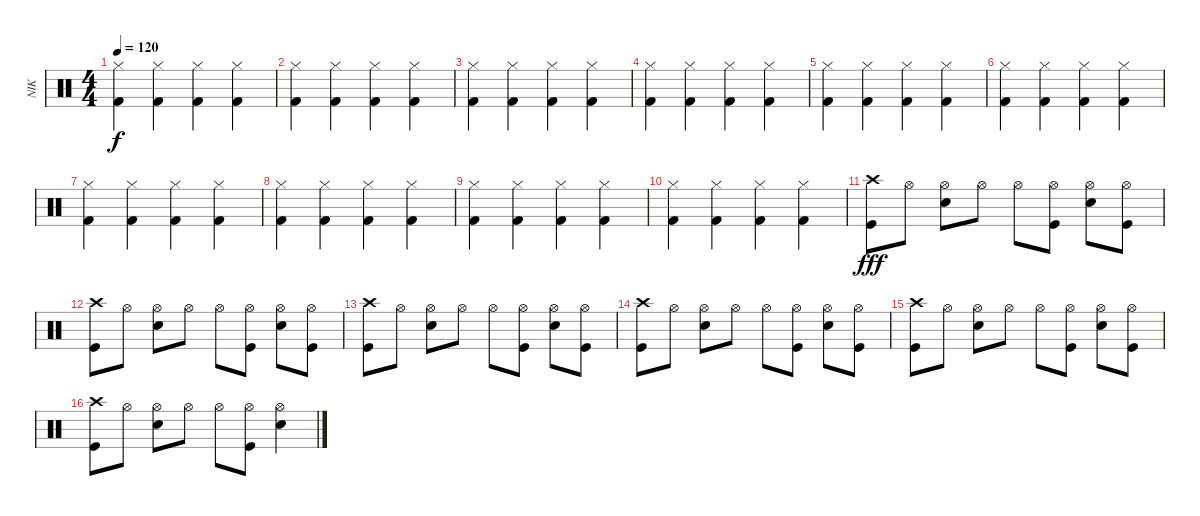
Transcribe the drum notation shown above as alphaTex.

\track ("NIK" "NIK") {instrument percussion}
\staff {score}
\articulation defaults
\ts (4 4)
\tempo 120
\clef neutral
\ks c
("Hi-Hat (closed)" "Kick (hit) 2").4{dy f} ("Hi-Hat (closed)" "Kick (hit) 2").4 ("Hi-Hat (closed)" "Kick (hit) 2").4 ("Hi-Hat (closed)" "Kick (hit) 2").4 |
("Hi-Hat (closed)" "Kick (hit) 2").4 ("Hi-Hat (closed)" "Kick (hit) 2").4 ("Hi-Hat (closed)" "Kick (hit) 2").4 ("Hi-Hat (closed)" "Kick (hit) 2").4 |
("Hi-Hat (closed)" "Kick (hit) 2").4 ("Hi-Hat (closed)" "Kick (hit) 2").4 ("Hi-Hat (closed)" "Kick (hit) 2").4 ("Hi-Hat (closed)" "Kick (hit) 2").4 |
("Hi-Hat (closed)" "Kick (hit) 2").4 ("Hi-Hat (closed)" "Kick (hit) 2").4 ("Hi-Hat (closed)" "Kick (hit) 2").4 ("Hi-Hat (closed)" "Kick (hit) 2").4 |
("Hi-Hat (closed)" "Kick (hit) 2").4 ("Hi-Hat (closed)" "Kick (hit) 2").4 ("Hi-Hat (closed)" "Kick (hit) 2").4 ("Hi-Hat (closed)" "Kick (hit) 2").4 |
("Hi-Hat (closed)" "Kick (hit) 2").4 ("Hi-Hat (closed)" "Kick (hit) 2").4 ("Hi-Hat (closed)" "Kick (hit) 2").4 ("Hi-Hat (closed)" "Kick (hit) 2").4 |
("Hi-Hat (closed)" "Kick (hit) 2").4 ("Hi-Hat (closed)" "Kick (hit) 2").4 ("Hi-Hat (closed)" "Kick (hit) 2").4 ("Hi-Hat (closed)" "Kick (hit) 2").4 |
("Hi-Hat (closed)" "Kick (hit) 2").4 ("Hi-Hat (closed)" "Kick (hit) 2").4 ("Hi-Hat (closed)" "Kick (hit) 2").4 ("Hi-Hat (closed)" "Kick (hit) 2").4 |
("Hi-Hat (closed)" "Kick (hit) 2").4 ("Hi-Hat (closed)" "Kick (hit) 2").4 ("Hi-Hat (closed)" "Kick (hit) 2").4 ("Hi-Hat (closed)" "Kick (hit) 2").4 |
("Hi-Hat (closed)" "Kick (hit) 2").4 ("Hi-Hat (closed)" "Kick (hit) 2").4 ("Hi-Hat (closed)" "Kick (hit) 2").4 ("Hi-Hat (closed)" "Kick (hit) 2").4 |
("Crash high (hit)" "Kick (hit)").8{dy fff} "Hi-Hat (open)".8 ("Hi-Hat (open)" "Snare (hit) 2").8 "Hi-Hat (open)".8 "Hi-Hat (open)".8 ("Hi-Hat (open)" "Kick (hit)").8 ("Hi-Hat (open)" "Snare (hit) 2").8 ("Hi-Hat (open)" "Kick (hit)").8 |
("Crash high (hit)" "Kick (hit)").8 "Hi-Hat (open)".8 ("Hi-Hat (open)" "Snare (hit) 2").8 "Hi-Hat (open)".8 "Hi-Hat (open)".8 ("Hi-Hat (open)" "Kick (hit)").8 ("Hi-Hat (open)" "Snare (hit) 2").8 ("Hi-Hat (open)" "Kick (hit)").8 |
("Crash high (hit)" "Kick (hit)").8 "Hi-Hat (open)".8 ("Hi-Hat (open)" "Snare (hit) 2").8 "Hi-Hat (open)".8 "Hi-Hat (open)".8 ("Hi-Hat (open)" "Kick (hit)").8 ("Hi-Hat (open)" "Snare (hit) 2").8 ("Hi-Hat (open)" "Kick (hit)").8 |
("Crash high (hit)" "Kick (hit)").8 "Hi-Hat (open)".8 ("Hi-Hat (open)" "Snare (hit) 2").8 "Hi-Hat (open)".8 "Hi-Hat (open)".8 ("Hi-Hat (open)" "Kick (hit)").8 ("Hi-Hat (open)" "Snare (hit) 2").8 ("Hi-Hat (open)" "Kick (hit)").8 |
("Crash high (hit)" "Kick (hit)").8 "Hi-Hat (open)".8 ("Hi-Hat (open)" "Snare (hit) 2").8 "Hi-Hat (open)".8 "Hi-Hat (open)".8 ("Hi-Hat (open)" "Kick (hit)").8 ("Hi-Hat (open)" "Snare (hit) 2").8 ("Hi-Hat (open)" "Kick (hit)").8 |
("Crash high (hit)" "Kick (hit)").8 "Hi-Hat (open)".8 ("Hi-Hat (open)" "Snare (hit) 2").8 "Hi-Hat (open)".8 "Hi-Hat (open)".8 ("Hi-Hat (open)" "Kick (hit)").8 ("Hi-Hat (open)" "Snare (hit) 2").4
